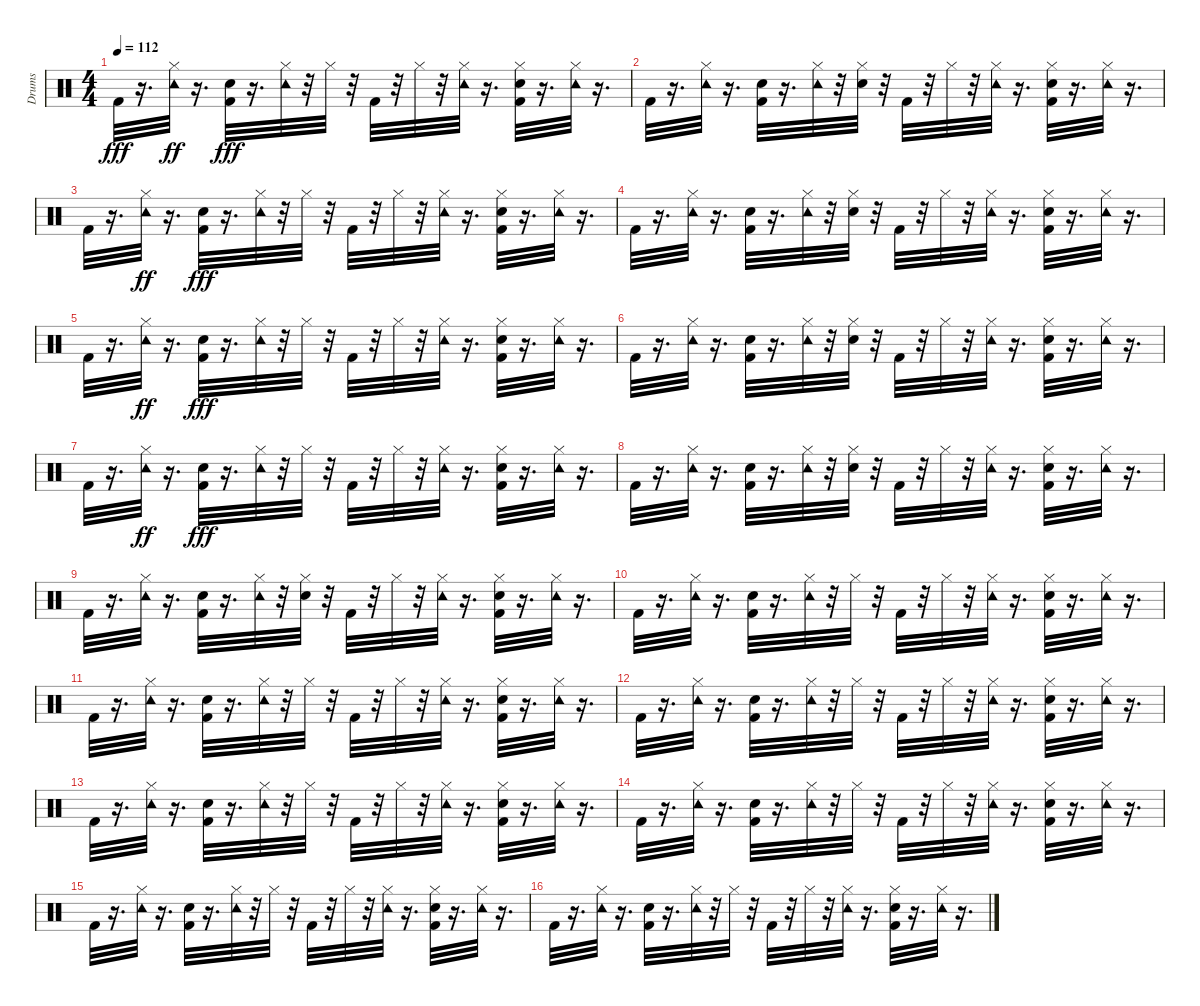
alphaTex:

\track ("Drums" "Drums") {instrument percussion}
\staff {score}
\articulation defaults
\ts (4 4)
\tempo 112
\clef neutral
\ks c "Kick (hit) 2".32{dy fff volume 16}
r.16{d} ("Hi-Hat (closed)" "Tambourine (hit)").32{dy ff} r.16{d} ("Kick (hit) 2" "Snare (hit) 2").32{dy fff} r.16{d} ("Hi-Hat (closed)" "Tambourine (hit)").32 r.32 "Hi-Hat (closed)".32 r.32 "Kick (hit) 2".32 r.32 "Hi-Hat (closed)".32 r.32 ("Hi-Hat (closed)" "Tambourine (hit)").32 r.16{d} ("Kick (hit) 2" "Snare (hit) 2" "Hi-Hat (closed)").32 r.16{d} ("Hi-Hat (closed)" "Tambourine (hit)").32 r.16{d} |
"Kick (hit) 2".32 r.16{d} ("Hi-Hat (closed)" "Tambourine (hit)").32 r.16{d} ("Kick (hit) 2" "Snare (hit) 2").32 r.16{d} ("Hi-Hat (closed)" "Tambourine (hit)").32 r.32 ("Snare (hit) 2" "Hi-Hat (closed)").32 r.32 "Kick (hit) 2".32 r.32 "Hi-Hat (closed)".32 r.32 ("Hi-Hat (closed)" "Tambourine (hit)").32 r.16{d} ("Kick (hit) 2" "Snare (hit) 2" "Hi-Hat (closed)").32 r.16{d} ("Hi-Hat (closed)" "Tambourine (hit)").32 r.16{d} |
"Kick (hit) 2".32 r.16{d} ("Hi-Hat (closed)" "Tambourine (hit)").32{dy ff} r.16{d} ("Kick (hit) 2" "Snare (hit) 2").32{dy fff} r.16{d} ("Hi-Hat (closed)" "Tambourine (hit)").32 r.32 "Hi-Hat (closed)".32 r.32 "Kick (hit) 2".32 r.32 "Hi-Hat (closed)".32 r.32 ("Hi-Hat (closed)" "Tambourine (hit)").32 r.16{d} ("Kick (hit) 2" "Snare (hit) 2" "Hi-Hat (closed)").32 r.16{d} ("Hi-Hat (closed)" "Tambourine (hit)").32 r.16{d} |
"Kick (hit) 2".32 r.16{d} ("Hi-Hat (closed)" "Tambourine (hit)").32 r.16{d} ("Kick (hit) 2" "Snare (hit) 2").32 r.16{d} ("Hi-Hat (closed)" "Tambourine (hit)").32 r.32 ("Snare (hit) 2" "Hi-Hat (closed)").32 r.32 "Kick (hit) 2".32 r.32 "Hi-Hat (closed)".32 r.32 ("Hi-Hat (closed)" "Tambourine (hit)").32 r.16{d} ("Kick (hit) 2" "Snare (hit) 2" "Hi-Hat (closed)").32 r.16{d} ("Hi-Hat (closed)" "Tambourine (hit)").32 r.16{d} |
"Kick (hit) 2".32 r.16{d} ("Hi-Hat (closed)" "Tambourine (hit)").32{dy ff} r.16{d} ("Kick (hit) 2" "Snare (hit) 2").32{dy fff} r.16{d} ("Hi-Hat (closed)" "Tambourine (hit)").32 r.32 "Hi-Hat (closed)".32 r.32 "Kick (hit) 2".32 r.32 "Hi-Hat (closed)".32 r.32 ("Hi-Hat (closed)" "Tambourine (hit)").32 r.16{d} ("Kick (hit) 2" "Snare (hit) 2" "Hi-Hat (closed)").32 r.16{d} ("Hi-Hat (closed)" "Tambourine (hit)").32 r.16{d} |
"Kick (hit) 2".32 r.16{d} ("Hi-Hat (closed)" "Tambourine (hit)").32 r.16{d} ("Kick (hit) 2" "Snare (hit) 2").32 r.16{d} ("Hi-Hat (closed)" "Tambourine (hit)").32 r.32 ("Snare (hit) 2" "Hi-Hat (closed)").32 r.32 "Kick (hit) 2".32 r.32 "Hi-Hat (closed)".32 r.32 ("Hi-Hat (closed)" "Tambourine (hit)").32 r.16{d} ("Kick (hit) 2" "Snare (hit) 2" "Hi-Hat (closed)").32 r.16{d} ("Hi-Hat (closed)" "Tambourine (hit)").32 r.16{d} |
"Kick (hit) 2".32 r.16{d} ("Hi-Hat (closed)" "Tambourine (hit)").32{dy ff} r.16{d} ("Kick (hit) 2" "Snare (hit) 2").32{dy fff} r.16{d} ("Hi-Hat (closed)" "Tambourine (hit)").32 r.32 "Hi-Hat (closed)".32 r.32 "Kick (hit) 2".32 r.32 "Hi-Hat (closed)".32 r.32 ("Hi-Hat (closed)" "Tambourine (hit)").32 r.16{d} ("Kick (hit) 2" "Snare (hit) 2" "Hi-Hat (closed)").32 r.16{d} ("Hi-Hat (closed)" "Tambourine (hit)").32 r.16{d} |
"Kick (hit) 2".32 r.16{d} ("Hi-Hat (closed)" "Tambourine (hit)").32 r.16{d} ("Kick (hit) 2" "Snare (hit) 2").32 r.16{d} ("Hi-Hat (closed)" "Tambourine (hit)").32 r.32 ("Snare (hit) 2" "Hi-Hat (closed)").32 r.32 "Kick (hit) 2".32 r.32 "Hi-Hat (closed)".32 r.32 ("Hi-Hat (closed)" "Tambourine (hit)").32 r.16{d} ("Kick (hit) 2" "Snare (hit) 2" "Hi-Hat (closed)").32 r.16{d} ("Hi-Hat (closed)" "Tambourine (hit)").32 r.16{d} |
"Kick (hit) 2".32 r.16{d} ("Hi-Hat (closed)" "Tambourine (hit)").32 r.16{d} ("Kick (hit) 2" "Snare (hit) 2").32 r.16{d} ("Hi-Hat (closed)" "Tambourine (hit)").32 r.32 ("Snare (hit) 2" "Hi-Hat (closed)").32 r.32 "Kick (hit) 2".32 r.32 "Hi-Hat (closed)".32 r.32 ("Hi-Hat (closed)" "Tambourine (hit)").32 r.16{d} ("Kick (hit) 2" "Snare (hit) 2" "Hi-Hat (closed)").32 r.16{d} ("Hi-Hat (closed)" "Tambourine (hit)").32 r.16{d} |
"Kick (hit) 2".32{volume 16} r.16{d} ("Tambourine (hit)" "Hi-Hat (closed)").32 r.16{d} ("Snare (hit) 2" "Kick (hit) 2").32 r.16{d} ("Tambourine (hit)" "Hi-Hat (closed)").32 r.32 "Hi-Hat (closed)".32 r.32 "Kick (hit) 2".32 r.32 "Hi-Hat (closed)".32 r.32 ("Tambourine (hit)" "Hi-Hat (closed)").32 r.16{d} ("Snare (hit) 2" "Hi-Hat (closed)" "Kick (hit) 2").32 r.16{d} ("Tambourine (hit)" "Hi-Hat (closed)").32 r.16{d} |
"Kick (hit) 2".32 r.16{d} ("Tambourine (hit)" "Hi-Hat (closed)").32 r.16{d} ("Snare (hit) 2" "Kick (hit) 2").32 r.16{d} ("Tambourine (hit)" "Hi-Hat (closed)").32 r.32 "Hi-Hat (closed)".32 r.32 "Kick (hit) 2".32 r.32 "Hi-Hat (closed)".32 r.32 ("Tambourine (hit)" "Hi-Hat (closed)").32 r.16{d} ("Snare (hit) 2" "Hi-Hat (closed)" "Kick (hit) 2").32 r.16{d} ("Tambourine (hit)" "Hi-Hat (closed)").32 r.16{d} |
"Kick (hit) 2".32 r.16{d} ("Tambourine (hit)" "Hi-Hat (closed)").32 r.16{d} ("Snare (hit) 2" "Kick (hit) 2").32 r.16{d} ("Tambourine (hit)" "Hi-Hat (closed)").32 r.32 "Hi-Hat (closed)".32 r.32 "Kick (hit) 2".32 r.32 "Hi-Hat (closed)".32 r.32 ("Tambourine (hit)" "Hi-Hat (closed)").32 r.16{d} ("Snare (hit) 2" "Hi-Hat (closed)" "Kick (hit) 2").32 r.16{d} ("Tambourine (hit)" "Hi-Hat (closed)").32 r.16{d} |
"Kick (hit) 2".32 r.16{d} ("Tambourine (hit)" "Hi-Hat (closed)").32 r.16{d} ("Snare (hit) 2" "Kick (hit) 2").32 r.16{d} ("Tambourine (hit)" "Hi-Hat (closed)").32 r.32 "Hi-Hat (closed)".32 r.32 "Kick (hit) 2".32 r.32 "Hi-Hat (closed)".32 r.32 ("Tambourine (hit)" "Hi-Hat (closed)").32 r.16{d} ("Snare (hit) 2" "Hi-Hat (closed)" "Kick (hit) 2").32 r.16{d} ("Tambourine (hit)" "Hi-Hat (closed)").32 r.16{d} |
"Kick (hit) 2".32 r.16{d} ("Tambourine (hit)" "Hi-Hat (closed)").32 r.16{d} ("Snare (hit) 2" "Kick (hit) 2").32 r.16{d} ("Tambourine (hit)" "Hi-Hat (closed)").32 r.32 "Hi-Hat (closed)".32 r.32 "Kick (hit) 2".32 r.32 "Hi-Hat (closed)".32 r.32 ("Tambourine (hit)" "Hi-Hat (closed)").32 r.16{d} ("Snare (hit) 2" "Hi-Hat (closed)" "Kick (hit) 2").32 r.16{d} ("Tambourine (hit)" "Hi-Hat (closed)").32 r.16{d} |
"Kick (hit) 2".32 r.16{d} ("Tambourine (hit)" "Hi-Hat (closed)").32 r.16{d} ("Snare (hit) 2" "Kick (hit) 2").32 r.16{d} ("Tambourine (hit)" "Hi-Hat (closed)").32 r.32 "Hi-Hat (closed)".32 r.32 "Kick (hit) 2".32 r.32 "Hi-Hat (closed)".32 r.32 ("Tambourine (hit)" "Hi-Hat (closed)").32 r.16{d} ("Snare (hit) 2" "Hi-Hat (closed)" "Kick (hit) 2").32 r.16{d} ("Tambourine (hit)" "Hi-Hat (closed)").32 r.16{d} |
"Kick (hit) 2".32 r.16{d} ("Tambourine (hit)" "Hi-Hat (closed)").32 r.16{d} ("Snare (hit) 2" "Kick (hit) 2").32 r.16{d} ("Tambourine (hit)" "Hi-Hat (closed)").32 r.32 "Hi-Hat (closed)".32 r.32 "Kick (hit) 2".32 r.32 "Hi-Hat (closed)".32 r.32 ("Tambourine (hit)" "Hi-Hat (closed)").32 r.16{d} ("Snare (hit) 2" "Hi-Hat (closed)" "Kick (hit) 2").32 r.16{d} ("Tambourine (hit)" "Hi-Hat (closed)").32 r.16{d}
